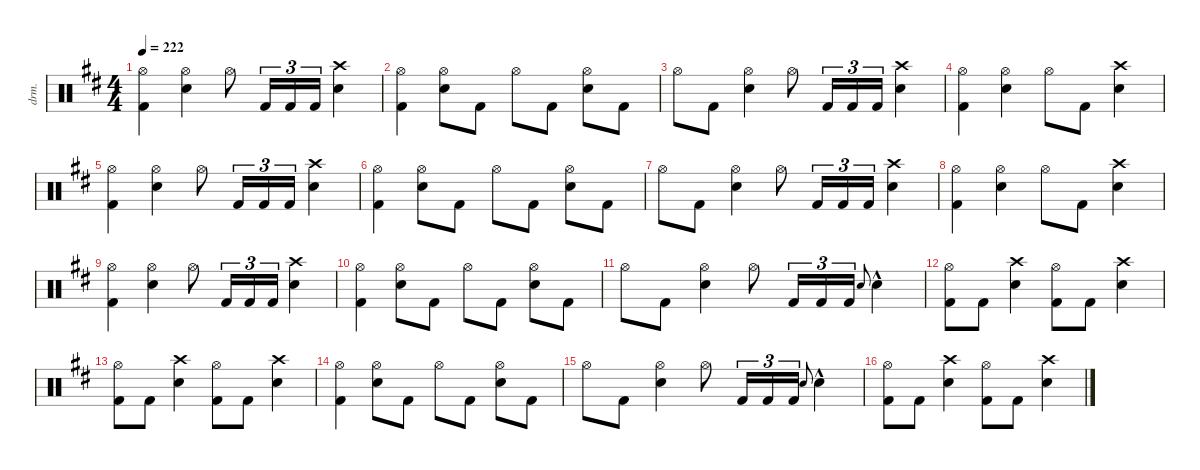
\defaultSystemsLayout 4
\hideDynamics
\bracketExtendMode nobrackets
\otherSystemsTrackNameOrientation horizontal
\track ("Lars Ulrich" "drm.") {defaultSystemsLayout 4 instrument percussion}
\staff {score}
\articulation defaults
\ts (4 4)
\tempo 222
\clef neutral
\ks bminor
("Hi-Hat (open)"{acc forcenatural} "Kick (hit) 2"{acc forcenatural}).4{dy f beam Down} ("Hi-Hat (open)"{acc forcenatural} "Snare (hit) 2"{acc forcenatural}).4{beam Down} "Hi-Hat (open)"{acc forcenatural}.8{beam Down} "Kick (hit) 2"{acc forcenatural}.16{tu (3 2) beam Up} "Kick (hit) 2"{acc forcenatural}.16{tu (3 2) beam Up} "Kick (hit) 2"{acc forcenatural}.16{tu (3 2) beam Up} ("Crash high (hit)"{acc forcenatural} "Snare (hit) 2"{acc forcenatural}).4{beam Down} |
("Hi-Hat (open)"{acc forcenatural} "Kick (hit) 2"{acc forcenatural}).4{beam Down} ("Hi-Hat (open)"{acc forcenatural} "Snare (hit) 2"{acc forcenatural}).8{beam Down} "Kick (hit) 2"{acc forcenatural}.8{beam Down} "Hi-Hat (open)"{acc forcenatural}.8{beam Down} "Kick (hit) 2"{acc forcenatural}.8{beam Down} ("Hi-Hat (open)"{acc forcenatural} "Snare (hit) 2"{acc forcenatural}).8{beam Down} "Kick (hit) 2"{acc forcenatural}.8{beam Down} |
"Hi-Hat (open)"{acc forcenatural}.8{beam Down} "Kick (hit) 2"{acc forcenatural}.8{beam Down} ("Hi-Hat (open)"{acc forcenatural} "Snare (hit) 2"{acc forcenatural}).4{beam Down} "Hi-Hat (open)"{acc forcenatural}.8{beam Down} "Kick (hit) 2"{acc forcenatural}.16{tu (3 2) beam Up} "Kick (hit) 2"{acc forcenatural}.16{tu (3 2) beam Up} "Kick (hit) 2"{acc forcenatural}.16{tu (3 2) beam Up} ("Crash high (hit)"{acc forcenatural} "Snare (hit) 2"{acc forcenatural}).4{beam Down} |
("Hi-Hat (open)"{acc forcenatural} "Kick (hit) 2"{acc forcenatural}).4{beam Down} ("Hi-Hat (open)"{acc forcenatural} "Snare (hit) 2"{acc forcenatural}).4{beam Down} "Hi-Hat (open)"{acc forcenatural}.8{beam Down} "Kick (hit) 2"{acc forcenatural}.8{beam Down} ("Crash high (hit)"{acc forcenatural} "Snare (hit) 2"{acc forcenatural}).4{beam Down} |
("Hi-Hat (open)"{acc forcenatural} "Kick (hit) 2"{acc forcenatural}).4{beam Down} ("Hi-Hat (open)"{acc forcenatural} "Snare (hit) 2"{acc forcenatural}).4{beam Down} "Hi-Hat (open)"{acc forcenatural}.8{beam Down} "Kick (hit) 2"{acc forcenatural}.16{tu (3 2) beam Up} "Kick (hit) 2"{acc forcenatural}.16{tu (3 2) beam Up} "Kick (hit) 2"{acc forcenatural}.16{tu (3 2) beam Up} ("Crash high (hit)"{acc forcenatural} "Snare (hit) 2"{acc forcenatural}).4{beam Down} |
("Hi-Hat (open)"{acc forcenatural} "Kick (hit) 2"{acc forcenatural}).4{beam Down} ("Hi-Hat (open)"{acc forcenatural} "Snare (hit) 2"{acc forcenatural}).8{beam Down} "Kick (hit) 2"{acc forcenatural}.8{beam Down} "Hi-Hat (open)"{acc forcenatural}.8{beam Down} "Kick (hit) 2"{acc forcenatural}.8{beam Down} ("Hi-Hat (open)"{acc forcenatural} "Snare (hit) 2"{acc forcenatural}).8{beam Down} "Kick (hit) 2"{acc forcenatural}.8{beam Down} |
"Hi-Hat (open)"{acc forcenatural}.8{beam Down} "Kick (hit) 2"{acc forcenatural}.8{beam Down} ("Hi-Hat (open)"{acc forcenatural} "Snare (hit) 2"{acc forcenatural}).4{beam Down} "Hi-Hat (open)"{acc forcenatural}.8{beam Down} "Kick (hit) 2"{acc forcenatural}.16{tu (3 2) beam Up} "Kick (hit) 2"{acc forcenatural}.16{tu (3 2) beam Up} "Kick (hit) 2"{acc forcenatural}.16{tu (3 2) beam Up} ("Crash high (hit)"{acc forcenatural} "Snare (hit) 2"{acc forcenatural}).4{beam Down} |
("Hi-Hat (open)"{acc forcenatural} "Kick (hit) 2"{acc forcenatural}).4{beam Down} ("Hi-Hat (open)"{acc forcenatural} "Snare (hit) 2"{acc forcenatural}).4{beam Down} "Hi-Hat (open)"{acc forcenatural}.8{beam Down} "Kick (hit) 2"{acc forcenatural}.8{beam Down} ("Crash high (hit)"{acc forcenatural} "Snare (hit) 2"{acc forcenatural}).4{beam Down} |
("Hi-Hat (open)"{acc forcenatural} "Kick (hit) 2"{acc forcenatural}).4{beam Down} ("Hi-Hat (open)"{acc forcenatural} "Snare (hit) 2"{acc forcenatural}).4{beam Down} "Hi-Hat (open)"{acc forcenatural}.8{beam Down} "Kick (hit) 2"{acc forcenatural}.16{tu (3 2) beam Up} "Kick (hit) 2"{acc forcenatural}.16{tu (3 2) beam Up} "Kick (hit) 2"{acc forcenatural}.16{tu (3 2) beam Up} ("Crash high (hit)"{acc forcenatural} "Snare (hit) 2"{acc forcenatural}).4{beam Down} |
("Hi-Hat (open)"{acc forcenatural} "Kick (hit) 2"{acc forcenatural}).4{beam Down} ("Hi-Hat (open)"{acc forcenatural} "Snare (hit) 2"{acc forcenatural}).8{beam Down} "Kick (hit) 2"{acc forcenatural}.8{beam Down} "Hi-Hat (open)"{acc forcenatural}.8{beam Down} "Kick (hit) 2"{acc forcenatural}.8{beam Down} ("Hi-Hat (open)"{acc forcenatural} "Snare (hit) 2"{acc forcenatural}).8{beam Down} "Kick (hit) 2"{acc forcenatural}.8{beam Down} |
"Hi-Hat (open)"{acc forcenatural}.8{beam Down} "Kick (hit) 2"{acc forcenatural}.8{beam Down} ("Hi-Hat (open)"{acc forcenatural} "Snare (hit) 2"{acc forcenatural}).4{beam Down} "Hi-Hat (open)"{acc forcenatural}.8{beam Down} "Kick (hit) 2"{acc forcenatural}.16{tu (3 2) beam Up} "Kick (hit) 2"{acc forcenatural}.16{tu (3 2) beam Up} "Kick (hit) 2"{acc forcenatural}.16{tu (3 2) beam Up} "Electric Snare (hit)"{acc forcenatural}.8{gr onbeat dy mp beam Up} "Snare (hit) 2"{hac acc forcenatural}.4{dy f beam Down} |
("Hi-Hat (open)"{acc forcenatural} "Kick (hit) 2"{acc forcenatural}).8{beam Down} "Kick (hit) 2"{acc forcenatural}.8{beam Down} ("Crash high (hit)"{acc forcenatural} "Snare (hit) 2"{acc forcenatural}).4{beam Down} ("Hi-Hat (open)"{acc forcenatural} "Kick (hit) 2"{acc forcenatural}).8{beam Down} "Kick (hit) 2"{acc forcenatural}.8{beam Down} ("Crash high (hit)"{acc forcenatural} "Snare (hit) 2"{acc forcenatural}).4{beam Down} |
("Hi-Hat (open)"{acc forcenatural} "Kick (hit) 2"{acc forcenatural}).8{beam Down} "Kick (hit) 2"{acc forcenatural}.8{beam Down} ("Crash high (hit)"{acc forcenatural} "Snare (hit) 2"{acc forcenatural}).4{beam Down} ("Hi-Hat (open)"{acc forcenatural} "Kick (hit) 2"{acc forcenatural}).8{beam Down} "Kick (hit) 2"{acc forcenatural}.8{beam Down} ("Crash high (hit)"{acc forcenatural} "Snare (hit) 2"{acc forcenatural}).4{beam Down} |
("Hi-Hat (open)"{acc forcenatural} "Kick (hit) 2"{acc forcenatural}).4{beam Down} ("Hi-Hat (open)"{acc forcenatural} "Snare (hit) 2"{acc forcenatural}).8{beam Down} "Kick (hit) 2"{acc forcenatural}.8{beam Down} "Hi-Hat (open)"{acc forcenatural}.8{beam Down} "Kick (hit) 2"{acc forcenatural}.8{beam Down} ("Hi-Hat (open)"{acc forcenatural} "Snare (hit) 2"{acc forcenatural}).8{beam Down} "Kick (hit) 2"{acc forcenatural}.8{beam Down} |
"Hi-Hat (open)"{acc forcenatural}.8{beam Down} "Kick (hit) 2"{acc forcenatural}.8{beam Down} ("Hi-Hat (open)"{acc forcenatural} "Snare (hit) 2"{acc forcenatural}).4{beam Down} "Hi-Hat (open)"{acc forcenatural}.8{beam Down} "Kick (hit) 2"{acc forcenatural}.16{tu (3 2) beam Up} "Kick (hit) 2"{acc forcenatural}.16{tu (3 2) beam Up} "Kick (hit) 2"{acc forcenatural}.16{tu (3 2) beam Up} "Electric Snare (hit)"{acc forcenatural}.8{gr onbeat dy mp beam Up} "Snare (hit) 2"{hac acc forcenatural}.4{dy f beam Down} |
("Hi-Hat (open)"{acc forcenatural} "Kick (hit) 2"{acc forcenatural}).8{beam Down} "Kick (hit) 2"{acc forcenatural}.8{beam Down} ("Crash high (hit)"{acc forcenatural} "Snare (hit) 2"{acc forcenatural}).4{beam Down} ("Hi-Hat (open)"{acc forcenatural} "Kick (hit) 2"{acc forcenatural}).8{beam Down} "Kick (hit) 2"{acc forcenatural}.8{beam Down} ("Crash high (hit)"{acc forcenatural} "Snare (hit) 2"{acc forcenatural}).4{beam Down}
